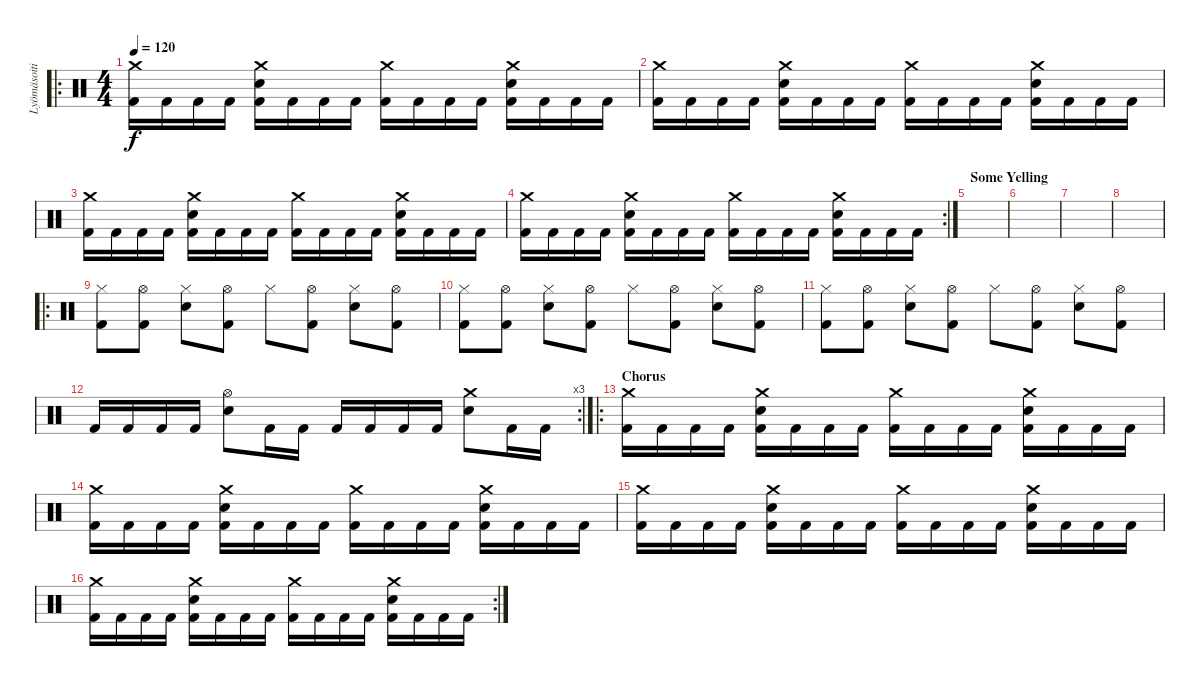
\track ("Lyömäsoitin" "Lyömäsoiti") {instrument percussion}
\staff {score}
\articulation defaults
\ro
\ts (4 4)
\tempo 120
\clef neutral
\ks c
("Crash medium (hit)" "Kick (hit) 2").16{dy f} "Kick (hit) 2".16 "Kick (hit) 2".16 "Kick (hit) 2".16 ("Crash medium (hit)" "Electric Snare (hit)" "Kick (hit) 2").16 "Kick (hit) 2".16 "Kick (hit) 2".16 "Kick (hit) 2".16 ("Crash medium (hit)" "Kick (hit) 2").16 "Kick (hit) 2".16 "Kick (hit) 2".16 "Kick (hit) 2".16 ("Crash medium (hit)" "Electric Snare (hit)" "Kick (hit) 2").16 "Kick (hit) 2".16 "Kick (hit) 2".16 "Kick (hit) 2".16 |
("Crash medium (hit)" "Kick (hit) 2").16 "Kick (hit) 2".16 "Kick (hit) 2".16 "Kick (hit) 2".16 ("Crash medium (hit)" "Electric Snare (hit)" "Kick (hit) 2").16 "Kick (hit) 2".16 "Kick (hit) 2".16 "Kick (hit) 2".16 ("Crash medium (hit)" "Kick (hit) 2").16 "Kick (hit) 2".16 "Kick (hit) 2".16 "Kick (hit) 2".16 ("Crash medium (hit)" "Electric Snare (hit)" "Kick (hit) 2").16 "Kick (hit) 2".16 "Kick (hit) 2".16 "Kick (hit) 2".16 |
("Crash medium (hit)" "Kick (hit) 2").16 "Kick (hit) 2".16 "Kick (hit) 2".16 "Kick (hit) 2".16 ("Crash medium (hit)" "Electric Snare (hit)" "Kick (hit) 2").16 "Kick (hit) 2".16 "Kick (hit) 2".16 "Kick (hit) 2".16 ("Crash medium (hit)" "Kick (hit) 2").16 "Kick (hit) 2".16 "Kick (hit) 2".16 "Kick (hit) 2".16 ("Crash medium (hit)" "Electric Snare (hit)" "Kick (hit) 2").16 "Kick (hit) 2".16 "Kick (hit) 2".16 "Kick (hit) 2".16 |
\rc 2
("Crash medium (hit)" "Kick (hit) 2").16 "Kick (hit) 2".16 "Kick (hit) 2".16 "Kick (hit) 2".16 ("Crash medium (hit)" "Electric Snare (hit)" "Kick (hit) 2").16 "Kick (hit) 2".16 "Kick (hit) 2".16 "Kick (hit) 2".16 ("Crash medium (hit)" "Kick (hit) 2").16 "Kick (hit) 2".16 "Kick (hit) 2".16 "Kick (hit) 2".16 ("Crash medium (hit)" "Electric Snare (hit)" "Kick (hit) 2").16 "Kick (hit) 2".16 "Kick (hit) 2".16 "Kick (hit) 2".16 |
\section ("" "Some Yelling")
|
|
|
|
\ro
("Hi-Hat (closed)" "Kick (hit) 2").8 ("Hi-Hat (open)" "Kick (hit) 2").8 ("Hi-Hat (closed)" "Electric Snare (hit)").8 ("Hi-Hat (open)" "Kick (hit) 2").8 "Hi-Hat (closed)".8 ("Hi-Hat (open)" "Kick (hit) 2").8 ("Hi-Hat (closed)" "Electric Snare (hit)").8 ("Hi-Hat (open)" "Kick (hit) 2").8 |
("Hi-Hat (closed)" "Kick (hit) 2").8 ("Hi-Hat (open)" "Kick (hit) 2").8 ("Hi-Hat (closed)" "Electric Snare (hit)").8 ("Hi-Hat (open)" "Kick (hit) 2").8 "Hi-Hat (closed)".8 ("Hi-Hat (open)" "Kick (hit) 2").8 ("Hi-Hat (closed)" "Electric Snare (hit)").8 ("Hi-Hat (open)" "Kick (hit) 2").8 |
("Hi-Hat (closed)" "Kick (hit) 2").8 ("Hi-Hat (open)" "Kick (hit) 2").8 ("Hi-Hat (closed)" "Electric Snare (hit)").8 ("Hi-Hat (open)" "Kick (hit) 2").8 "Hi-Hat (closed)".8 ("Hi-Hat (open)" "Kick (hit) 2").8 ("Hi-Hat (closed)" "Electric Snare (hit)").8 ("Hi-Hat (open)" "Kick (hit) 2").8 |
\rc 3 "Kick (hit) 2".16 "Kick (hit) 2".16 "Kick (hit) 2".16 "Kick (hit) 2".16
("Hi-Hat (open)" "Electric Snare (hit)").8 "Kick (hit) 2".16 "Kick (hit) 2".16 "Kick (hit) 2".16 "Kick (hit) 2".16 "Kick (hit) 2".16 "Kick (hit) 2".16 ("Crash medium (hit)" "Electric Snare (hit)").8 "Kick (hit) 2".16 "Kick (hit) 2".16 |
\ro
\section ("" "Chorus")
("Crash medium (hit)" "Kick (hit) 2").16 "Kick (hit) 2".16 "Kick (hit) 2".16 "Kick (hit) 2".16 ("Crash medium (hit)" "Electric Snare (hit)" "Kick (hit) 2").16 "Kick (hit) 2".16 "Kick (hit) 2".16 "Kick (hit) 2".16 ("Crash medium (hit)" "Kick (hit) 2").16 "Kick (hit) 2".16 "Kick (hit) 2".16 "Kick (hit) 2".16 ("Crash medium (hit)" "Electric Snare (hit)" "Kick (hit) 2").16 "Kick (hit) 2".16 "Kick (hit) 2".16 "Kick (hit) 2".16 |
("Crash medium (hit)" "Kick (hit) 2").16 "Kick (hit) 2".16 "Kick (hit) 2".16 "Kick (hit) 2".16 ("Crash medium (hit)" "Electric Snare (hit)" "Kick (hit) 2").16 "Kick (hit) 2".16 "Kick (hit) 2".16 "Kick (hit) 2".16 ("Crash medium (hit)" "Kick (hit) 2").16 "Kick (hit) 2".16 "Kick (hit) 2".16 "Kick (hit) 2".16 ("Crash medium (hit)" "Electric Snare (hit)" "Kick (hit) 2").16 "Kick (hit) 2".16 "Kick (hit) 2".16 "Kick (hit) 2".16 |
("Crash medium (hit)" "Kick (hit) 2").16 "Kick (hit) 2".16 "Kick (hit) 2".16 "Kick (hit) 2".16 ("Crash medium (hit)" "Electric Snare (hit)" "Kick (hit) 2").16 "Kick (hit) 2".16 "Kick (hit) 2".16 "Kick (hit) 2".16 ("Crash medium (hit)" "Kick (hit) 2").16 "Kick (hit) 2".16 "Kick (hit) 2".16 "Kick (hit) 2".16 ("Crash medium (hit)" "Electric Snare (hit)" "Kick (hit) 2").16 "Kick (hit) 2".16 "Kick (hit) 2".16 "Kick (hit) 2".16 |
\rc 2
("Crash medium (hit)" "Kick (hit) 2").16 "Kick (hit) 2".16 "Kick (hit) 2".16 "Kick (hit) 2".16 ("Crash medium (hit)" "Electric Snare (hit)" "Kick (hit) 2").16 "Kick (hit) 2".16 "Kick (hit) 2".16 "Kick (hit) 2".16 ("Crash medium (hit)" "Kick (hit) 2").16 "Kick (hit) 2".16 "Kick (hit) 2".16 "Kick (hit) 2".16 ("Crash medium (hit)" "Electric Snare (hit)" "Kick (hit) 2").16 "Kick (hit) 2".16 "Kick (hit) 2".16 "Kick (hit) 2".16
